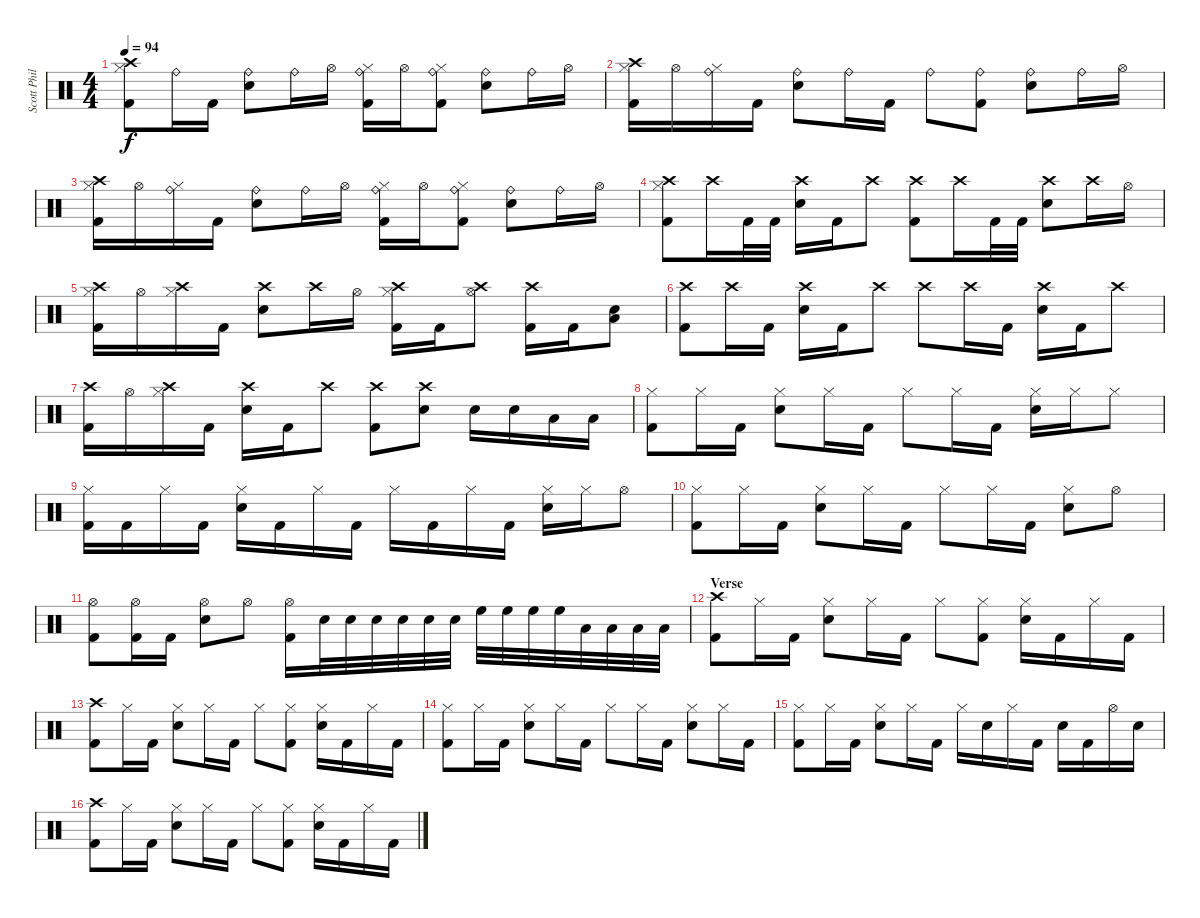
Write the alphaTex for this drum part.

\track ("Scott Phillips" "Scott Phil") {instrument percussion}
\staff {score}
\articulation defaults
\ts (4 4)
\tempo 94
\clef neutral
\ks c
("Crash high (hit)" "Hi-Hat (closed)" "Kick (hit) 2").8{dy f} "Ride (bell)".16 "Kick (hit) 2".16 ("Ride (bell)" "Electric Snare (hit)").8 "Ride (bell)".16 "Hi-Hat (open)".16 ("Ride (bell)" "Hi-Hat (closed)" "Kick (hit) 2").16 "Hi-Hat (open)".16 ("Ride (bell)" "Hi-Hat (closed)" "Kick (hit) 2").8 ("Ride (bell)" "Electric Snare (hit)").8 "Ride (bell)".16 "Hi-Hat (open)".16 |
("Crash high (hit)" "Hi-Hat (closed)" "Kick (hit) 2").16 "Hi-Hat (open)".16 ("Ride (bell)" "Hi-Hat (closed)").16 "Kick (hit) 2".16 ("Ride (bell)" "Electric Snare (hit)").8 "Ride (bell)".16 "Kick (hit) 2".16 "Ride (bell)".8 ("Ride (bell)" "Kick (hit) 2").8 ("Ride (bell)" "Electric Snare (hit)").8 "Ride (bell)".16 "Hi-Hat (open)".16 |
("Crash high (hit)" "Hi-Hat (closed)" "Kick (hit) 2").16 "Hi-Hat (open)".16 ("Ride (bell)" "Hi-Hat (closed)").16 "Kick (hit) 2".16 ("Ride (bell)" "Electric Snare (hit)").8 "Ride (bell)".16 "Hi-Hat (open)".16 ("Ride (bell)" "Hi-Hat (closed)" "Kick (hit) 2").16 "Hi-Hat (open)".16 ("Ride (bell)" "Hi-Hat (closed)" "Kick (hit) 2").8 ("Ride (bell)" "Electric Snare (hit)").8 "Ride (bell)".16 "Hi-Hat (open)".16 |
("Crash high (hit)" "Hi-Hat (closed)" "Kick (hit) 2").8 "Crash high (hit)".16 "Kick (hit) 2".32 "Kick (hit) 2".32 ("Crash high (hit)" "Electric Snare (hit)").16 "Kick (hit) 2".16 "Crash high (hit)".8 ("Crash high (hit)" "Kick (hit) 2").8 "Crash high (hit)".16 "Kick (hit) 2".32 "Kick (hit) 2".32 ("Crash high (hit)" "Electric Snare (hit)").8 "Crash high (hit)".16 "Hi-Hat (open)".16 |
("Crash high (hit)" "Hi-Hat (closed)" "Kick (hit) 2").16 "Hi-Hat (open)".16 ("Crash high (hit)" "Hi-Hat (closed)").16 "Kick (hit) 2".16 ("Crash high (hit)" "Electric Snare (hit)").8 "Crash high (hit)".16 "Hi-Hat (open)".16 ("Crash high (hit)" "Hi-Hat (closed)" "Kick (hit) 2").16 "Kick (hit) 2".16 ("Crash high (hit)" "Hi-Hat (open)").8 ("Crash high (hit)" "Kick (hit) 2").16 "Kick (hit) 2".16 ("Electric Snare (hit)" "Low Floor Tom (hit)").8 |
("Crash high (hit)" "Kick (hit) 2").8 "Crash high (hit)".16 "Kick (hit) 2".16 ("Crash high (hit)" "Electric Snare (hit)").16 "Kick (hit) 2".16 "Crash high (hit)".8 "Crash high (hit)".8 "Crash high (hit)".16 "Kick (hit) 2".16 ("Crash high (hit)" "Electric Snare (hit)").16 "Kick (hit) 2".16 "Crash high (hit)".8 |
("Crash high (hit)" "Kick (hit) 2").16 "Hi-Hat (open)".16 ("Crash high (hit)" "Hi-Hat (closed)").16 "Kick (hit) 2".16 ("Crash high (hit)" "Electric Snare (hit)").16 "Kick (hit) 2".16 "Crash high (hit)".8 ("Crash high (hit)" "Kick (hit) 2").8 ("Crash high (hit)" "Electric Snare (hit)").8 "Electric Snare (hit)".16 "Electric Snare (hit)".16 "Low Tom (hit)".16 "Low Floor Tom (hit)".16 |
("Hi-Hat (closed)" "Kick (hit) 2").8 "Hi-Hat (closed)".16 "Kick (hit) 2".16 ("Hi-Hat (closed)" "Electric Snare (hit)").8 "Hi-Hat (closed)".16 "Kick (hit) 2".16 "Hi-Hat (closed)".8 "Hi-Hat (closed)".16 "Kick (hit) 2".16 ("Hi-Hat (closed)" "Electric Snare (hit)").16 "Hi-Hat (closed)".16 "Hi-Hat (closed)".8 |
("Hi-Hat (closed)" "Kick (hit) 2").16 "Kick (hit) 2".16 "Hi-Hat (closed)".16 "Kick (hit) 2".16 ("Hi-Hat (closed)" "Electric Snare (hit)").16 "Kick (hit) 2".16 "Hi-Hat (closed)".16 "Kick (hit) 2".16 "Hi-Hat (closed)".16 "Kick (hit) 2".16 "Hi-Hat (closed)".16 "Kick (hit) 2".16 ("Hi-Hat (closed)" "Electric Snare (hit)").16 "Hi-Hat (closed)".16 "Hi-Hat (open)".8 |
("Hi-Hat (closed)" "Kick (hit) 2").8 "Hi-Hat (closed)".16 "Kick (hit) 2".16 ("Hi-Hat (closed)" "Electric Snare (hit)").8 "Hi-Hat (closed)".16 "Kick (hit) 2".16 "Hi-Hat (closed)".8 "Hi-Hat (closed)".16 "Kick (hit) 2".16 ("Hi-Hat (closed)" "Electric Snare (hit)").8 "Hi-Hat (open)".8 |
("Hi-Hat (open)" "Kick (hit) 2").8 ("Hi-Hat (open)" "Kick (hit) 2").16 "Kick (hit) 2".16 ("Hi-Hat (open)" "Electric Snare (hit)").8 "Hi-Hat (open)".8 ("Hi-Hat (open)" "Kick (hit) 2").16 "Electric Snare (hit)".32 "Electric Snare (hit)".32 "Electric Snare (hit)".32 "Electric Snare (hit)".32 "Electric Snare (hit)".32 "Electric Snare (hit)".32 "High Floor Tom (hit)".32 "High Floor Tom (hit)".32 "High Floor Tom (hit)".32 "High Floor Tom (hit)".32 "Low Tom (hit)".32 "Low Tom (hit)".32 "Low Floor Tom (hit)".32 "Low Floor Tom (hit)".32 |
\section ("" "Verse")
("Crash high (hit)" "Kick (hit) 2").8 "Hi-Hat (closed)".16 "Kick (hit) 2".16 ("Hi-Hat (closed)" "Electric Snare (hit)").8 "Hi-Hat (closed)".16 "Kick (hit) 2".16 "Hi-Hat (closed)".8 ("Hi-Hat (closed)" "Kick (hit) 2").8 ("Hi-Hat (closed)" "Electric Snare (hit)").16 "Kick (hit) 2".16 "Hi-Hat (closed)".16 "Kick (hit) 2".16 |
("Crash high (hit)" "Kick (hit) 2").8 "Hi-Hat (closed)".16 "Kick (hit) 2".16 ("Hi-Hat (closed)" "Electric Snare (hit)").8 "Hi-Hat (closed)".16 "Kick (hit) 2".16 "Hi-Hat (closed)".8 ("Hi-Hat (closed)" "Kick (hit) 2").8 ("Hi-Hat (closed)" "Electric Snare (hit)").16 "Kick (hit) 2".16 "Hi-Hat (closed)".16 "Kick (hit) 2".16 |
("Hi-Hat (closed)" "Kick (hit) 2").8 "Hi-Hat (closed)".16 "Kick (hit) 2".16 ("Hi-Hat (closed)" "Electric Snare (hit)").8 "Hi-Hat (closed)".16 "Kick (hit) 2".16 "Hi-Hat (closed)".8 "Hi-Hat (closed)".16 "Kick (hit) 2".16 ("Hi-Hat (closed)" "Electric Snare (hit)").8 "Hi-Hat (closed)".16 "Kick (hit) 2".16 |
("Hi-Hat (closed)" "Kick (hit) 2").8 "Hi-Hat (closed)".16 "Kick (hit) 2".16 ("Hi-Hat (closed)" "Electric Snare (hit)").8 "Hi-Hat (closed)".16 "Kick (hit) 2".16 "Hi-Hat (closed)".16 "Electric Snare (hit)".16 "Hi-Hat (closed)".16 "Kick (hit) 2".16 "Electric Snare (hit)".16 "Kick (hit) 2".16 "Hi-Hat (open)".16 "Electric Snare (hit)".16 |
("Crash high (hit)" "Kick (hit) 2").8 "Hi-Hat (closed)".16 "Kick (hit) 2".16 ("Hi-Hat (closed)" "Electric Snare (hit)").8 "Hi-Hat (closed)".16 "Kick (hit) 2".16 "Hi-Hat (closed)".8 ("Hi-Hat (closed)" "Kick (hit) 2").8 ("Hi-Hat (closed)" "Electric Snare (hit)").16 "Kick (hit) 2".16 "Hi-Hat (closed)".16 "Kick (hit) 2".16
